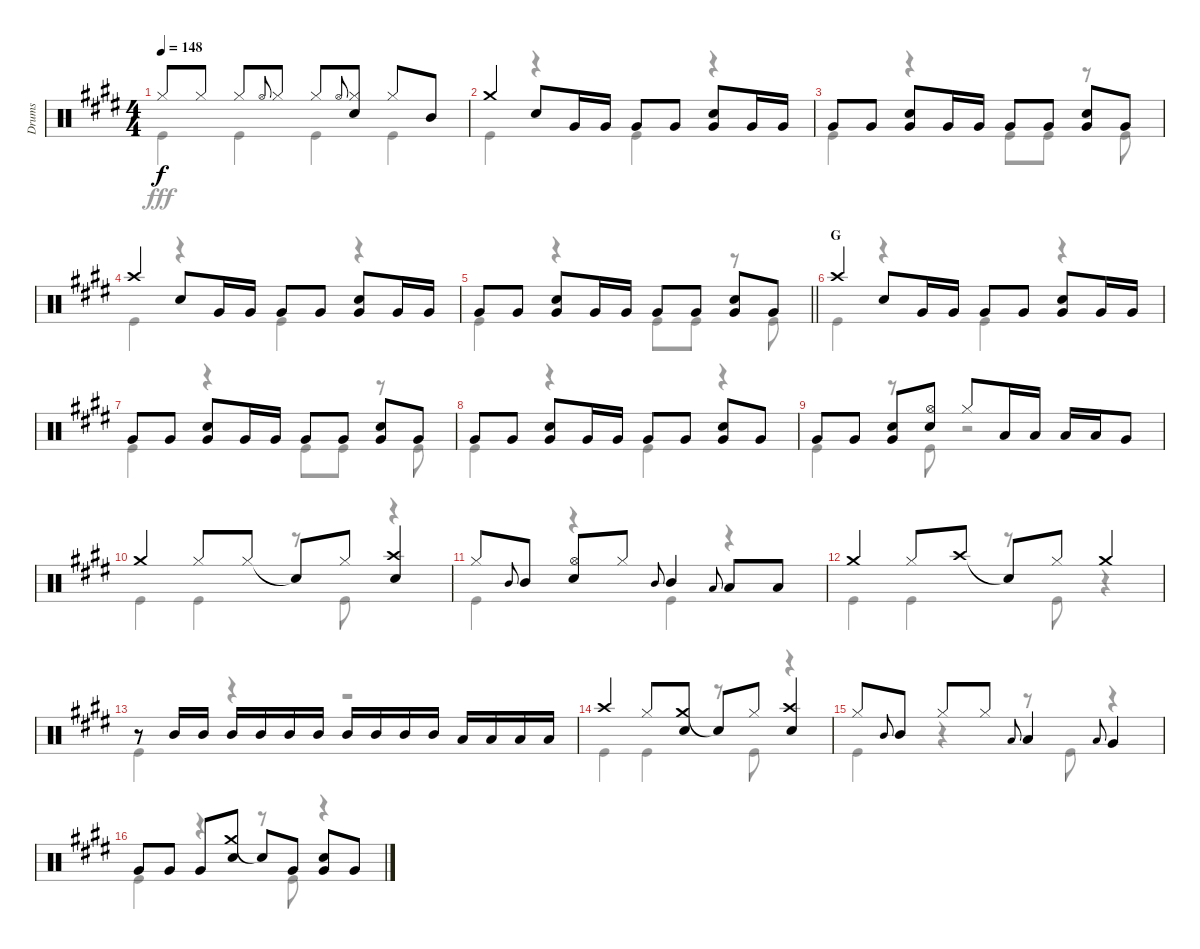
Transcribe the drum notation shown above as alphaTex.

\track ("Drums" "Drums") {instrument percussion}
\staff {score}
\articulation defaults
\voice
\ts (4 4)
\tempo 148
\clef neutral
\ks e "Hi-Hat (closed)".8{dy f} "Hi-Hat (closed)".8 "Hi-Hat (closed)".8 "Hi-Hat (open)".8{gr onbeat} "Hi-Hat (closed)".8 "Hi-Hat (closed)".8 "Hi-Hat (open)".8{gr onbeat}
("Hi-Hat (closed)" "Snare (hit) 2").8 "Hi-Hat (closed)".8 "Mid Tom (hit)".8 |
"Crash medium (hit)".4 "Snare (hit) 2".8 "Very Low Tom (hit)".16 "Very Low Tom (hit)".16 "Very Low Tom (hit)".8 "Very Low Tom (hit)".8 ("Snare (hit) 2" "Very Low Tom (hit)").8 "Very Low Tom (hit)".16 "Very Low Tom (hit)".16 |
"Very Low Tom (hit)".8 "Very Low Tom (hit)".8 ("Snare (hit) 2" "Very Low Tom (hit)").8 "Very Low Tom (hit)".16 "Very Low Tom (hit)".16 "Very Low Tom (hit)".8 "Very Low Tom (hit)".8 ("Snare (hit) 2" "Very Low Tom (hit)").8 "Very Low Tom (hit)".8 |
"Crash high (hit)".4 "Snare (hit) 2".8 "Very Low Tom (hit)".16 "Very Low Tom (hit)".16 "Very Low Tom (hit)".8 "Very Low Tom (hit)".8 ("Snare (hit) 2" "Very Low Tom (hit)").8 "Very Low Tom (hit)".16 "Very Low Tom (hit)".16 |
\barLineRight lightlight "Very Low Tom (hit)".8 "Very Low Tom (hit)".8
("Snare (hit) 2" "Very Low Tom (hit)").8 "Very Low Tom (hit)".16 "Very Low Tom (hit)".16 "Very Low Tom (hit)".8 "Very Low Tom (hit)".8 ("Snare (hit) 2" "Very Low Tom (hit)").8 "Very Low Tom (hit)".8 |
\section ("" "G")
"Crash high (hit)".4 "Snare (hit) 2".8 "Very Low Tom (hit)".16 "Very Low Tom (hit)".16 "Very Low Tom (hit)".8 "Very Low Tom (hit)".8 ("Snare (hit) 2" "Very Low Tom (hit)").8 "Very Low Tom (hit)".16 "Very Low Tom (hit)".16 |
"Very Low Tom (hit)".8 "Very Low Tom (hit)".8 ("Snare (hit) 2" "Very Low Tom (hit)").8 "Very Low Tom (hit)".16 "Very Low Tom (hit)".16 "Very Low Tom (hit)".8 "Very Low Tom (hit)".8 ("Snare (hit) 2" "Very Low Tom (hit)").8 "Very Low Tom (hit)".8 |
"Very Low Tom (hit)".8 "Very Low Tom (hit)".8 ("Snare (hit) 2" "Very Low Tom (hit)").8 "Very Low Tom (hit)".16 "Very Low Tom (hit)".16 "Very Low Tom (hit)".8 "Very Low Tom (hit)".8 ("Snare (hit) 2" "Very Low Tom (hit)").8 "Very Low Tom (hit)".8 |
"Very Low Tom (hit)".8 "Very Low Tom (hit)".8 ("Snare (hit) 2" "Very Low Tom (hit)").8 ("Hi-Hat (open)" "Snare (hit) 2").8 "Hi-Hat (closed)".8 "Low Tom (hit)".16 "Low Tom (hit)".16 "Low Tom (hit)".16 "Low Tom (hit)".16 "Very Low Tom (hit)".8 |
"Crash medium (hit)".4 "Hi-Hat (closed)".8 "Hi-Hat (closed)".8 "Snare (hit)"{t}.8 "Hi-Hat (closed)".8 ("Crash high (hit)" "Snare (hit) 2").4 |
"Hi-Hat (closed)".8 "Mid Tom (hit)".8{gr onbeat} "Mid Tom (hit)".8 ("Hi-Hat (open)" "Snare (hit) 2").8 "Hi-Hat (closed)".8 "Mid Tom (hit)".8{gr onbeat} "Mid Tom (hit)".4 "Low Tom (hit)".8{gr onbeat} "Low Tom (hit)".8 "Low Tom (hit)".8 |
"Crash medium (hit)".4 "Hi-Hat (closed)".8 "Crash high (hit)".8 "Snare (hit)"{t}.8 "Hi-Hat (closed)".8 "Crash medium (hit)".4 |
r.8 "Mid Tom (hit)".16 "Mid Tom (hit)".16 "Mid Tom (hit)".16 "Mid Tom (hit)".16 "Mid Tom (hit)".16 "Mid Tom (hit)".16 "Mid Tom (hit)".16 "Mid Tom (hit)".16 "Mid Tom (hit)".16 "Mid Tom (hit)".16 "Low Tom (hit)".16 "Low Tom (hit)".16 "Low Tom (hit)".16 "Low Tom (hit)".16 |
"Crash high (hit)".4 "Hi-Hat (closed)".8 ("Crash medium (hit)" "Snare (hit) 2").8 "Snare (hit)"{t}.8 "Hi-Hat (closed)".8 ("Crash high (hit)" "Snare (hit) 2").4 |
"Hi-Hat (closed)".8 "Mid Tom (hit)".8{gr onbeat} "Mid Tom (hit)".8 "Hi-Hat (closed)".8 "Hi-Hat (closed)".8 "Low Tom (hit)".8{gr onbeat} "Low Tom (hit)".4 "Low Tom (hit)".8{gr onbeat} "Very Low Tom (hit)".4 |
"Very Low Tom (hit)".8 "Very Low Tom (hit)".8 "Very Low Tom (hit)".8 ("Crash medium (hit)" "Snare (hit) 2").8 "Snare (hit)"{t}.8 "Very Low Tom (hit)".8 ("Snare (hit) 2" "Very Low Tom (hit)").8 "Very Low Tom (hit)".8
\voice
\clef neutral
\ottava regular
\simile none
\ks e "Kick (hit)".4{dy fff} "Kick (hit)".4 "Kick (hit)".4 "Kick (hit)".4
|
"Kick (hit)".4 r.4 "Kick (hit)".4 r.4 |
"Kick (hit)".4 r.4 "Kick (hit)".8 "Kick (hit)".8 r.8 "Kick (hit)".8 |
"Kick (hit)".4 r.4 "Kick (hit)".4 r.4 |
\barLineRight lightlight "Kick (hit)".4
r.4 "Kick (hit)".8 "Kick (hit)".8 r.8 "Kick (hit)".8 |
"Kick (hit)".4 r.4 "Kick (hit)".4 r.4 |
"Kick (hit)".4 r.4 "Kick (hit)".8 "Kick (hit)".8 r.8 "Kick (hit)".8 |
"Kick (hit)".4 r.4 "Kick (hit)".4 r.4 |
"Kick (hit)".4 r.8 "Kick (hit)".8 r.2 |
"Kick (hit)".4 "Kick (hit)".4 r.8 "Kick (hit)".8 r.4 |
"Kick (hit)".4 r.4 "Kick (hit)".4 r.4 |
"Kick (hit)".4 "Kick (hit)".4 r.8 "Kick (hit)".8 r.4 |
"Kick (hit)".4 r.4 r.2 |
"Kick (hit)".4 "Kick (hit)".4 r.8 "Kick (hit)".8 r.4 |
"Kick (hit)".4 r.4 r.8 "Kick (hit)".8 r.4 |
"Kick (hit)".4 r.4 r.8 "Kick (hit)".8 r.4
